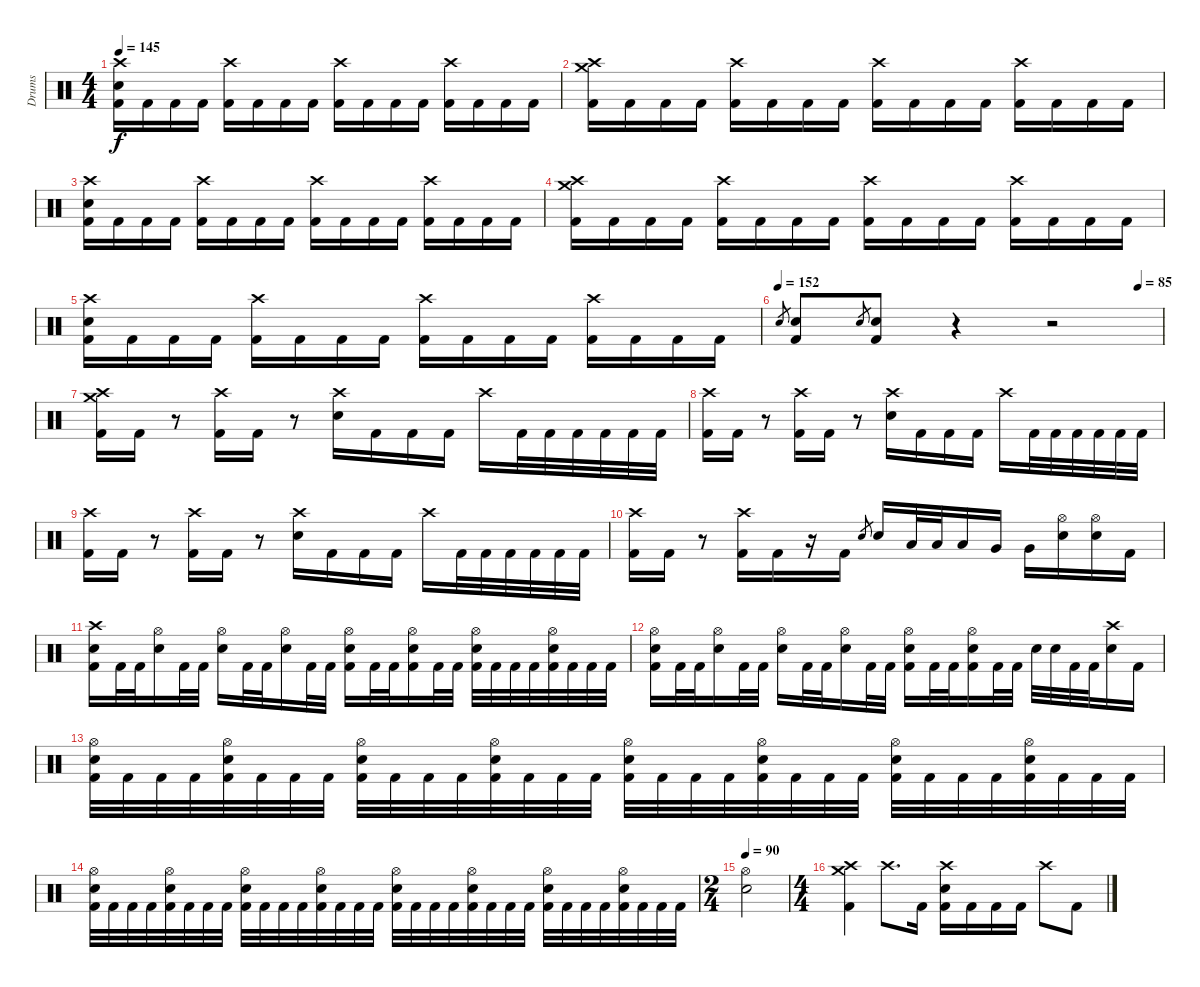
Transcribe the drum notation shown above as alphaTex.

\track ("Drums" "Drums") {instrument percussion}
\staff {score}
\articulation defaults
\ts (4 4)
\tempo 145
\clef neutral
\ks c
("Crash high (hit)" "Electric Snare (hit)" "Kick (hit) 2").16{dy f} "Kick (hit) 2".16 "Kick (hit) 2".16 "Kick (hit) 2".16 ("Crash high (hit)" "Kick (hit) 2").16 "Kick (hit) 2".16 "Kick (hit) 2".16 "Kick (hit) 2".16 ("Crash high (hit)" "Kick (hit) 2").16 "Kick (hit) 2".16 "Kick (hit) 2".16 "Kick (hit) 2".16 ("Crash high (hit)" "Kick (hit) 2").16 "Kick (hit) 2".16 "Kick (hit) 2".16 "Kick (hit) 2".16 |
("Crash high (hit)" "Crash medium (hit)" "Kick (hit) 2").16 "Kick (hit) 2".16 "Kick (hit) 2".16 "Kick (hit) 2".16 ("Crash high (hit)" "Kick (hit) 2").16 "Kick (hit) 2".16 "Kick (hit) 2".16 "Kick (hit) 2".16 ("Crash high (hit)" "Kick (hit) 2").16 "Kick (hit) 2".16 "Kick (hit) 2".16 "Kick (hit) 2".16 ("Crash high (hit)" "Kick (hit) 2").16 "Kick (hit) 2".16 "Kick (hit) 2".16 "Kick (hit) 2".16 |
("Crash high (hit)" "Electric Snare (hit)" "Kick (hit) 2").16 "Kick (hit) 2".16 "Kick (hit) 2".16 "Kick (hit) 2".16 ("Crash high (hit)" "Kick (hit) 2").16 "Kick (hit) 2".16 "Kick (hit) 2".16 "Kick (hit) 2".16 ("Crash high (hit)" "Kick (hit) 2").16 "Kick (hit) 2".16 "Kick (hit) 2".16 "Kick (hit) 2".16 ("Crash high (hit)" "Kick (hit) 2").16 "Kick (hit) 2".16 "Kick (hit) 2".16 "Kick (hit) 2".16 |
("Crash high (hit)" "Crash medium (hit)" "Kick (hit) 2").16 "Kick (hit) 2".16 "Kick (hit) 2".16 "Kick (hit) 2".16 ("Crash high (hit)" "Kick (hit) 2").16 "Kick (hit) 2".16 "Kick (hit) 2".16 "Kick (hit) 2".16 ("Crash high (hit)" "Kick (hit) 2").16 "Kick (hit) 2".16 "Kick (hit) 2".16 "Kick (hit) 2".16 ("Crash high (hit)" "Kick (hit) 2").16 "Kick (hit) 2".16 "Kick (hit) 2".16 "Kick (hit) 2".16 |
("Crash high (hit)" "Electric Snare (hit)" "Kick (hit) 2").16 "Kick (hit) 2".16 "Kick (hit) 2".16 "Kick (hit) 2".16 ("Crash high (hit)" "Kick (hit) 2").16 "Kick (hit) 2".16 "Kick (hit) 2".16 "Kick (hit) 2".16 ("Crash high (hit)" "Kick (hit) 2").16 "Kick (hit) 2".16 "Kick (hit) 2".16 "Kick (hit) 2".16 ("Crash high (hit)" "Kick (hit) 2").16 "Kick (hit) 2".16 "Kick (hit) 2".16 "Kick (hit) 2".16 |
\tempo 152
\tempo (85 0.9375)
"Electric Snare (hit)".8{gr} ("Electric Snare (hit)" "Kick (hit) 2").8 "Electric Snare (hit)".8{gr} ("Electric Snare (hit)" "Kick (hit) 2").8 r.4 r.2 |
("Crash high (hit)" "Crash medium (hit)" "Kick (hit) 2").16 "Kick (hit) 2".16 r.8 ("Crash high (hit)" "Kick (hit) 2").16 "Kick (hit) 2".16 r.8 ("Crash high (hit)" "Electric Snare (hit)").16 "Kick (hit) 2".16 "Kick (hit) 2".16 "Kick (hit) 2".16 "Crash high (hit)".16 "Kick (hit) 2".32 "Kick (hit) 2".32 "Kick (hit) 2".32 "Kick (hit) 2".32 "Kick (hit) 2".32 "Kick (hit) 2".32 |
("Crash high (hit)" "Kick (hit) 2").16 "Kick (hit) 2".16 r.8 ("Crash high (hit)" "Kick (hit) 2").16 "Kick (hit) 2".16 r.8 ("Crash high (hit)" "Electric Snare (hit)").16 "Kick (hit) 2".16 "Kick (hit) 2".16 "Kick (hit) 2".16 "Crash high (hit)".16 "Kick (hit) 2".32 "Kick (hit) 2".32 "Kick (hit) 2".32 "Kick (hit) 2".32 "Kick (hit) 2".32 "Kick (hit) 2".32 |
("Crash high (hit)" "Kick (hit) 2").16 "Kick (hit) 2".16 r.8 ("Crash high (hit)" "Kick (hit) 2").16 "Kick (hit) 2".16 r.8 ("Crash high (hit)" "Electric Snare (hit)").16 "Kick (hit) 2".16 "Kick (hit) 2".16 "Kick (hit) 2".16 "Crash high (hit)".16 "Kick (hit) 2".32 "Kick (hit) 2".32 "Kick (hit) 2".32 "Kick (hit) 2".32 "Kick (hit) 2".32 "Kick (hit) 2".32 |
("Crash high (hit)" "Kick (hit) 2").16 "Kick (hit) 2".16 r.8 ("Crash high (hit)" "Kick (hit) 2").16 "Kick (hit) 2".16 r.16 "Kick (hit) 2".16 "Electric Snare (hit)".8{gr} "Electric Snare (hit)".16 "Low Tom (hit)".32 "Low Tom (hit)".32 "Low Tom (hit)".16 "Very Low Tom (hit)".16 "Very Low Tom (hit)".16 ("Hi-Hat (open)" "Electric Snare (hit)").16 ("Hi-Hat (open)" "Electric Snare (hit)").16 "Kick (hit) 2".16 |
("Crash high (hit)" "Electric Snare (hit)" "Kick (hit) 2").16 "Kick (hit) 2".32 "Kick (hit) 2".32 ("Hi-Hat (open)" "Electric Snare (hit)").16 "Kick (hit) 2".32 "Kick (hit) 2".32 ("Hi-Hat (open)" "Electric Snare (hit)").16 "Kick (hit) 2".32 "Kick (hit) 2".32 ("Hi-Hat (open)" "Electric Snare (hit)").16 "Kick (hit) 2".32 "Kick (hit) 2".32 ("Hi-Hat (open)" "Electric Snare (hit)" "Kick (hit) 2").16 "Kick (hit) 2".32 "Kick (hit) 2".32 ("Hi-Hat (open)" "Electric Snare (hit)" "Kick (hit) 2").16 "Kick (hit) 2".32 "Kick (hit) 2".32 ("Hi-Hat (open)" "Electric Snare (hit)" "Kick (hit) 2").32 "Kick (hit) 2".32 "Kick (hit) 2".32 "Kick (hit) 2".32 ("Hi-Hat (open)" "Electric Snare (hit)" "Kick (hit) 2").32 "Kick (hit) 2".32 "Kick (hit) 2".32 "Kick (hit) 2".32 |
("Hi-Hat (open)" "Electric Snare (hit)" "Kick (hit) 2").16 "Kick (hit) 2".32 "Kick (hit) 2".32 ("Hi-Hat (open)" "Electric Snare (hit)").16 "Kick (hit) 2".32 "Kick (hit) 2".32 ("Hi-Hat (open)" "Electric Snare (hit)").16 "Kick (hit) 2".32 "Kick (hit) 2".32 ("Hi-Hat (open)" "Electric Snare (hit)").16 "Kick (hit) 2".32 "Kick (hit) 2".32 ("Hi-Hat (open)" "Electric Snare (hit)" "Kick (hit) 2").16 "Kick (hit) 2".32 "Kick (hit) 2".32 ("Hi-Hat (open)" "Electric Snare (hit)" "Kick (hit) 2").16 "Kick (hit) 2".32 "Kick (hit) 2".32 "Electric Snare (hit)".32 "Electric Snare (hit)".32 "Kick (hit) 2".32 "Kick (hit) 2".32 ("Crash high (hit)" "Electric Snare (hit)").16 "Kick (hit) 2".16 |
("Hi-Hat (open)" "Electric Snare (hit)" "Kick (hit) 2").32 "Kick (hit) 2".32 "Kick (hit) 2".32 "Kick (hit) 2".32 ("Hi-Hat (open)" "Electric Snare (hit)" "Kick (hit) 2").32 "Kick (hit) 2".32 "Kick (hit) 2".32 "Kick (hit) 2".32 ("Hi-Hat (open)" "Electric Snare (hit)" "Kick (hit) 2").32 "Kick (hit) 2".32 "Kick (hit) 2".32 "Kick (hit) 2".32 ("Hi-Hat (open)" "Electric Snare (hit)" "Kick (hit) 2").32 "Kick (hit) 2".32 "Kick (hit) 2".32 "Kick (hit) 2".32 ("Hi-Hat (open)" "Electric Snare (hit)" "Kick (hit) 2").32 "Kick (hit) 2".32 "Kick (hit) 2".32 "Kick (hit) 2".32 ("Hi-Hat (open)" "Electric Snare (hit)" "Kick (hit) 2").32 "Kick (hit) 2".32 "Kick (hit) 2".32 "Kick (hit) 2".32 ("Hi-Hat (open)" "Electric Snare (hit)" "Kick (hit) 2").32 "Kick (hit) 2".32 "Kick (hit) 2".32 "Kick (hit) 2".32 ("Hi-Hat (open)" "Electric Snare (hit)" "Kick (hit) 2").32 "Kick (hit) 2".32 "Kick (hit) 2".32 "Kick (hit) 2".32 |
("Hi-Hat (open)" "Electric Snare (hit)" "Kick (hit) 2").32 "Kick (hit) 2".32 "Kick (hit) 2".32 "Kick (hit) 2".32 ("Hi-Hat (open)" "Electric Snare (hit)" "Kick (hit) 2").32 "Kick (hit) 2".32 "Kick (hit) 2".32 "Kick (hit) 2".32 ("Hi-Hat (open)" "Electric Snare (hit)" "Kick (hit) 2").32 "Kick (hit) 2".32 "Kick (hit) 2".32 "Kick (hit) 2".32 ("Hi-Hat (open)" "Electric Snare (hit)" "Kick (hit) 2").32 "Kick (hit) 2".32 "Kick (hit) 2".32 "Kick (hit) 2".32 ("Hi-Hat (open)" "Electric Snare (hit)" "Kick (hit) 2").32 "Kick (hit) 2".32 "Kick (hit) 2".32 "Kick (hit) 2".32 ("Hi-Hat (open)" "Electric Snare (hit)" "Kick (hit) 2").32 "Kick (hit) 2".32 "Kick (hit) 2".32 "Kick (hit) 2".32 ("Hi-Hat (open)" "Electric Snare (hit)" "Kick (hit) 2").32 "Kick (hit) 2".32 "Kick (hit) 2".32 "Kick (hit) 2".32 ("Hi-Hat (open)" "Electric Snare (hit)" "Kick (hit) 2").32 "Kick (hit) 2".32 "Kick (hit) 2".32 "Kick (hit) 2".32 |
\ts (2 4)
\tempo 90
("Hi-Hat (open)" "Electric Snare (hit)").2 |
\ts (4 4)
("Crash high (hit)" "Crash medium (hit)" "Kick (hit) 2").4 "Crash high (hit)".8{d} "Kick (hit) 2".16 ("Crash high (hit)" "Electric Snare (hit)" "Kick (hit) 2").16 "Kick (hit) 2".16 "Kick (hit) 2".16 "Kick (hit) 2".16 "Crash high (hit)".8 "Kick (hit) 2".8
